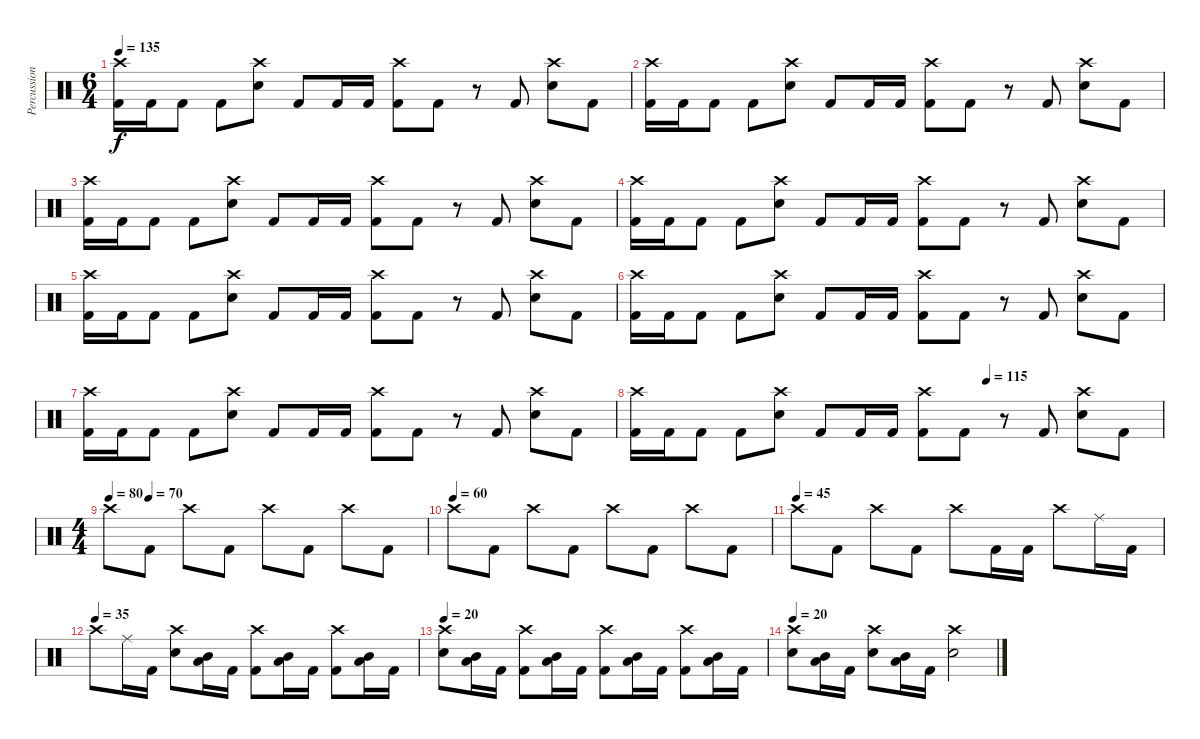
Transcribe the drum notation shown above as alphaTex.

\track ("Percussion" "Percussion") {instrument percussion}
\staff {score}
\articulation defaults
\ts (6 4)
\tempo 135
\clef neutral
\ks c
("Crash high (hit)" "Kick (hit) 2").16{dy f} "Kick (hit) 2".16 "Kick (hit) 2".8 "Kick (hit) 2".8 ("Crash high (hit)" "Electric Snare (hit)").8 "Kick (hit) 2".8 "Kick (hit) 2".16 "Kick (hit) 2".16 ("Crash high (hit)" "Kick (hit) 2").8 "Kick (hit) 2".8 r.8 "Kick (hit) 2".8 ("Crash high (hit)" "Electric Snare (hit)").8 "Kick (hit) 2".8 |
("Crash high (hit)" "Kick (hit) 2").16 "Kick (hit) 2".16 "Kick (hit) 2".8 "Kick (hit) 2".8 ("Crash high (hit)" "Electric Snare (hit)").8 "Kick (hit) 2".8 "Kick (hit) 2".16 "Kick (hit) 2".16 ("Crash high (hit)" "Kick (hit) 2").8 "Kick (hit) 2".8 r.8 "Kick (hit) 2".8 ("Crash high (hit)" "Electric Snare (hit)").8 "Kick (hit) 2".8 |
("Crash high (hit)" "Kick (hit) 2").16 "Kick (hit) 2".16 "Kick (hit) 2".8 "Kick (hit) 2".8 ("Crash high (hit)" "Electric Snare (hit)").8 "Kick (hit) 2".8 "Kick (hit) 2".16 "Kick (hit) 2".16 ("Crash high (hit)" "Kick (hit) 2").8 "Kick (hit) 2".8 r.8 "Kick (hit) 2".8 ("Crash high (hit)" "Electric Snare (hit)").8 "Kick (hit) 2".8 |
("Crash high (hit)" "Kick (hit) 2").16 "Kick (hit) 2".16 "Kick (hit) 2".8 "Kick (hit) 2".8 ("Crash high (hit)" "Electric Snare (hit)").8 "Kick (hit) 2".8 "Kick (hit) 2".16 "Kick (hit) 2".16 ("Crash high (hit)" "Kick (hit) 2").8 "Kick (hit) 2".8 r.8 "Kick (hit) 2".8 ("Crash high (hit)" "Electric Snare (hit)").8 "Kick (hit) 2".8 |
("Crash high (hit)" "Kick (hit) 2").16 "Kick (hit) 2".16 "Kick (hit) 2".8 "Kick (hit) 2".8 ("Crash high (hit)" "Electric Snare (hit)").8 "Kick (hit) 2".8 "Kick (hit) 2".16 "Kick (hit) 2".16 ("Crash high (hit)" "Kick (hit) 2").8 "Kick (hit) 2".8 r.8 "Kick (hit) 2".8 ("Crash high (hit)" "Electric Snare (hit)").8 "Kick (hit) 2".8 |
("Crash high (hit)" "Kick (hit) 2").16 "Kick (hit) 2".16 "Kick (hit) 2".8 "Kick (hit) 2".8 ("Crash high (hit)" "Electric Snare (hit)").8 "Kick (hit) 2".8 "Kick (hit) 2".16 "Kick (hit) 2".16 ("Crash high (hit)" "Kick (hit) 2").8 "Kick (hit) 2".8 r.8 "Kick (hit) 2".8 ("Crash high (hit)" "Electric Snare (hit)").8 "Kick (hit) 2".8 |
("Crash high (hit)" "Kick (hit) 2").16 "Kick (hit) 2".16 "Kick (hit) 2".8 "Kick (hit) 2".8 ("Crash high (hit)" "Electric Snare (hit)").8 "Kick (hit) 2".8 "Kick (hit) 2".16 "Kick (hit) 2".16 ("Crash high (hit)" "Kick (hit) 2").8 "Kick (hit) 2".8 r.8 "Kick (hit) 2".8 ("Crash high (hit)" "Electric Snare (hit)").8 "Kick (hit) 2".8 |
\tempo (115 0.6666666666666666)
("Crash high (hit)" "Kick (hit) 2").16 "Kick (hit) 2".16 "Kick (hit) 2".8 "Kick (hit) 2".8 ("Crash high (hit)" "Electric Snare (hit)").8 "Kick (hit) 2".8 "Kick (hit) 2".16 "Kick (hit) 2".16 ("Crash high (hit)" "Kick (hit) 2").8 "Kick (hit) 2".8 r.8 "Kick (hit) 2".8 ("Crash high (hit)" "Electric Snare (hit)").8 "Kick (hit) 2".8 |
\ts (4 4)
\tempo 80
\tempo (70 0.125)
"Crash high (hit)".8 "Kick (hit) 2".8 "Crash high (hit)".8 "Kick (hit) 2".8 "Crash high (hit)".8 "Kick (hit) 2".8 "Crash high (hit)".8 "Kick (hit) 2".8 |
\tempo (60)
"Crash high (hit)".8 "Kick (hit) 2".8 "Crash high (hit)".8 "Kick (hit) 2".8 "Crash high (hit)".8 "Kick (hit) 2".8 "Crash high (hit)".8 "Kick (hit) 2".8 |
\tempo 50
\tempo (45)
"Crash high (hit)".8 "Kick (hit) 2".8 "Crash high (hit)".8 "Kick (hit) 2".8 "Crash high (hit)".8 "Kick (hit) 2".16 "Kick (hit) 2".16 "Crash high (hit)".8 "Ride (middle)".16 "Kick (hit) 2".16 |
\tempo 42
\tempo (35)
"Crash high (hit)".8 "Ride (middle)".16 "Kick (hit) 2".16 ("Crash high (hit)" "Hand Clap (hit)").8 ("Low Tom (hit)" "Mid Tom (hit)").16 "Kick (hit) 2".16 ("Crash high (hit)" "Kick (hit) 2").8 ("Low Tom (hit)" "Mid Tom (hit)").16 "Kick (hit) 2".16 ("Crash high (hit)" "Kick (hit) 2").8 ("Low Tom (hit)" "Mid Tom (hit)").16 "Kick (hit) 2".16 |
\tempo 32
\tempo 20
("Crash high (hit)" "Hand Clap (hit)").8 ("Low Tom (hit)" "Mid Tom (hit)").16 "Kick (hit) 2".16 ("Crash high (hit)" "Kick (hit) 2").8 ("Low Tom (hit)" "Mid Tom (hit)").16 "Kick (hit) 2".16 ("Crash high (hit)" "Kick (hit) 2").8 ("Low Tom (hit)" "Mid Tom (hit)").16 "Kick (hit) 2".16 ("Crash high (hit)" "Kick (hit) 2").8 ("Low Tom (hit)" "Mid Tom (hit)").16 "Kick (hit) 2".16 |
\tempo 26
\tempo 20
("Crash high (hit)" "Hand Clap (hit)").8 ("Low Tom (hit)" "Mid Tom (hit)").16 "Kick (hit) 2".16 ("Crash high (hit)" "Hand Clap (hit)").8 ("Low Tom (hit)" "Mid Tom (hit)").16 "Kick (hit) 2".16 ("Crash high (hit)" "Hand Clap (hit)").2
